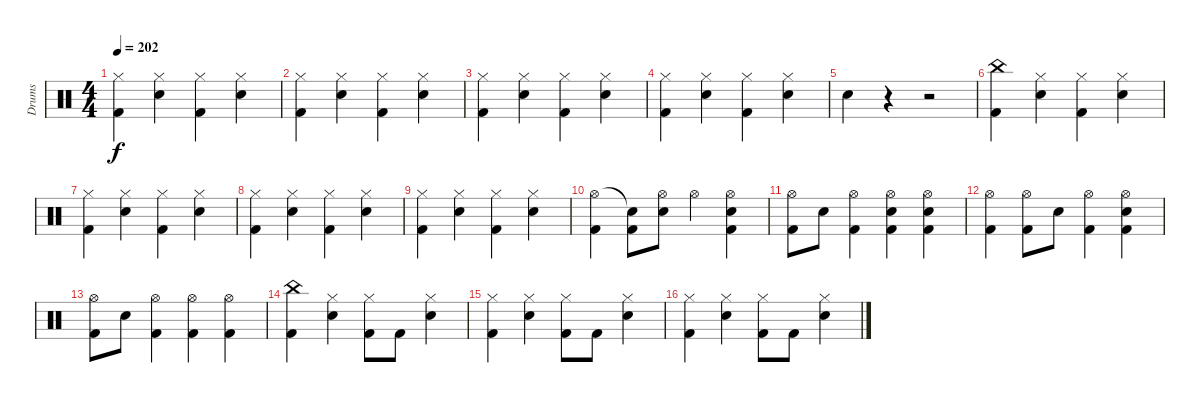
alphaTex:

\track ("Drums" "Drums") {instrument percussion}
\staff {score}
\articulation defaults
\ts (4 4)
\tempo 202
\clef neutral
\ks c
("Hi-Hat (closed)" "Kick (hit) 2").4{dy f} ("Hi-Hat (closed)" "Snare (hit) 2").4 ("Hi-Hat (closed)" "Kick (hit) 2").4 ("Hi-Hat (closed)" "Snare (hit) 2").4 |
("Hi-Hat (closed)" "Kick (hit) 2").4 ("Hi-Hat (closed)" "Snare (hit) 2").4 ("Hi-Hat (closed)" "Kick (hit) 2").4 ("Hi-Hat (closed)" "Snare (hit) 2").4 |
("Hi-Hat (closed)" "Kick (hit) 2").4 ("Hi-Hat (closed)" "Snare (hit) 2").4 ("Hi-Hat (closed)" "Kick (hit) 2").4 ("Hi-Hat (closed)" "Snare (hit) 2").4 |
("Hi-Hat (closed)" "Kick (hit) 2").4 ("Hi-Hat (closed)" "Snare (hit) 2").4 ("Hi-Hat (closed)" "Kick (hit) 2").4 ("Hi-Hat (closed)" "Snare (hit) 2").4 |
"Snare (hit) 2".4 r.4 r.2 |
("China (hit)" "Kick (hit) 2").4 ("Hi-Hat (closed)" "Snare (hit) 2").4 ("Hi-Hat (closed)" "Kick (hit) 2").4 ("Hi-Hat (closed)" "Snare (hit) 2").4 |
("Hi-Hat (closed)" "Kick (hit) 2").4 ("Hi-Hat (closed)" "Snare (hit) 2").4 ("Hi-Hat (closed)" "Kick (hit) 2").4 ("Hi-Hat (closed)" "Snare (hit) 2").4 |
("Hi-Hat (closed)" "Kick (hit) 2").4 ("Hi-Hat (closed)" "Snare (hit) 2").4 ("Hi-Hat (closed)" "Kick (hit) 2").4 ("Hi-Hat (closed)" "Snare (hit) 2").4 |
("Hi-Hat (closed)" "Kick (hit) 2").4 ("Hi-Hat (closed)" "Snare (hit) 2").4 ("Hi-Hat (closed)" "Kick (hit) 2").4 ("Hi-Hat (closed)" "Snare (hit) 2").4 |
("Hi-Hat (open)" "Kick (hit) 2").4 ("Snare (hit)"{t} "Kick (hit) 2").8 ("Hi-Hat (open)" "Snare (hit) 2").8 "Hi-Hat (open)".4 ("Hi-Hat (open)" "Snare (hit) 2" "Kick (hit) 2").4 |
("Hi-Hat (open)" "Kick (hit) 2").8 "Snare (hit) 2".8 ("Hi-Hat (open)" "Kick (hit) 2").4 ("Hi-Hat (open)" "Snare (hit) 2" "Kick (hit) 2").4 ("Hi-Hat (open)" "Snare (hit) 2" "Kick (hit) 2").4 |
("Hi-Hat (open)" "Kick (hit) 2").4 ("Hi-Hat (open)" "Kick (hit) 2").8 "Snare (hit) 2".8 ("Hi-Hat (open)" "Kick (hit) 2").4 ("Hi-Hat (open)" "Snare (hit) 2" "Kick (hit) 2").4 |
("Hi-Hat (open)" "Kick (hit) 2").8 "Snare (hit) 2".8 ("Hi-Hat (open)" "Kick (hit) 2").4 ("Hi-Hat (open)" "Kick (hit) 2").4 ("Hi-Hat (open)" "Kick (hit) 2").4 |
("China (hit)" "Kick (hit) 2").4 ("Hi-Hat (closed)" "Snare (hit) 2").4 ("Hi-Hat (closed)" "Kick (hit) 2").8 "Kick (hit) 2".8 ("Hi-Hat (closed)" "Snare (hit) 2").4 |
("Hi-Hat (closed)" "Kick (hit) 2").4 ("Hi-Hat (closed)" "Snare (hit) 2").4 ("Hi-Hat (closed)" "Kick (hit) 2").8 "Kick (hit) 2".8 ("Hi-Hat (closed)" "Snare (hit) 2").4 |
("Hi-Hat (closed)" "Kick (hit) 2").4 ("Hi-Hat (closed)" "Snare (hit) 2").4 ("Hi-Hat (closed)" "Kick (hit) 2").8 "Kick (hit) 2".8 ("Hi-Hat (closed)" "Snare (hit) 2").4
